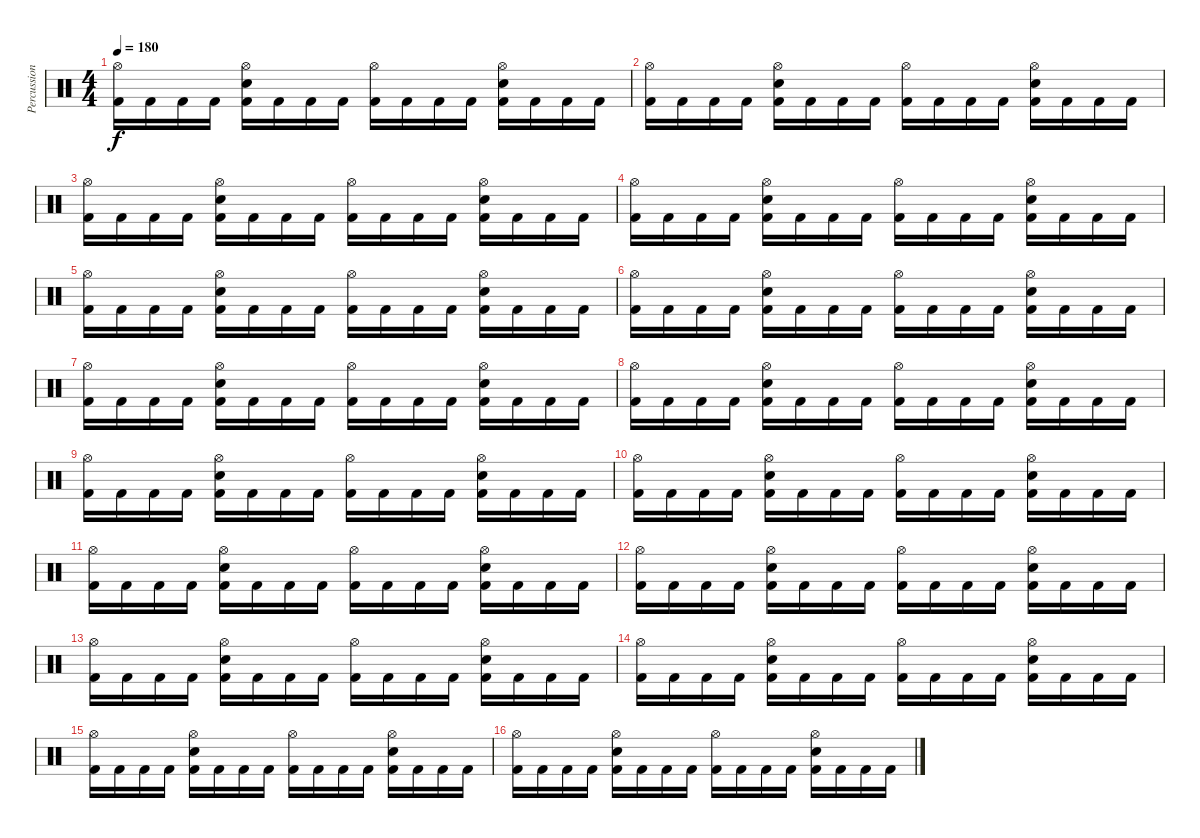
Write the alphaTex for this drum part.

\track ("Percussion" "Percussion") {instrument percussion}
\staff {score}
\articulation defaults
\ts (4 4)
\tempo 180
\clef neutral
\ks c
("Hi-Hat (open)" "Kick (hit) 2").16{dy f} "Kick (hit) 2".16 "Kick (hit) 2".16 "Kick (hit) 2".16 ("Hi-Hat (open)" "Snare (hit) 2" "Kick (hit) 2").16 "Kick (hit) 2".16 "Kick (hit) 2".16 "Kick (hit) 2".16 ("Hi-Hat (open)" "Kick (hit) 2").16 "Kick (hit) 2".16 "Kick (hit) 2".16 "Kick (hit) 2".16 ("Hi-Hat (open)" "Snare (hit) 2" "Kick (hit) 2").16 "Kick (hit) 2".16 "Kick (hit) 2".16 "Kick (hit) 2".16 |
("Hi-Hat (open)" "Kick (hit) 2").16 "Kick (hit) 2".16 "Kick (hit) 2".16 "Kick (hit) 2".16 ("Hi-Hat (open)" "Snare (hit) 2" "Kick (hit) 2").16 "Kick (hit) 2".16 "Kick (hit) 2".16 "Kick (hit) 2".16 ("Hi-Hat (open)" "Kick (hit) 2").16 "Kick (hit) 2".16 "Kick (hit) 2".16 "Kick (hit) 2".16 ("Hi-Hat (open)" "Snare (hit) 2" "Kick (hit) 2").16 "Kick (hit) 2".16 "Kick (hit) 2".16 "Kick (hit) 2".16 |
("Hi-Hat (open)" "Kick (hit) 2").16 "Kick (hit) 2".16 "Kick (hit) 2".16 "Kick (hit) 2".16 ("Hi-Hat (open)" "Snare (hit) 2" "Kick (hit) 2").16 "Kick (hit) 2".16 "Kick (hit) 2".16 "Kick (hit) 2".16 ("Hi-Hat (open)" "Kick (hit) 2").16 "Kick (hit) 2".16 "Kick (hit) 2".16 "Kick (hit) 2".16 ("Hi-Hat (open)" "Snare (hit) 2" "Kick (hit) 2").16 "Kick (hit) 2".16 "Kick (hit) 2".16 "Kick (hit) 2".16 |
("Hi-Hat (open)" "Kick (hit) 2").16 "Kick (hit) 2".16 "Kick (hit) 2".16 "Kick (hit) 2".16 ("Hi-Hat (open)" "Snare (hit) 2" "Kick (hit) 2").16 "Kick (hit) 2".16 "Kick (hit) 2".16 "Kick (hit) 2".16 ("Hi-Hat (open)" "Kick (hit) 2").16 "Kick (hit) 2".16 "Kick (hit) 2".16 "Kick (hit) 2".16 ("Hi-Hat (open)" "Snare (hit) 2" "Kick (hit) 2").16 "Kick (hit) 2".16 "Kick (hit) 2".16 "Kick (hit) 2".16 |
("Hi-Hat (open)" "Kick (hit) 2").16 "Kick (hit) 2".16 "Kick (hit) 2".16 "Kick (hit) 2".16 ("Hi-Hat (open)" "Snare (hit) 2" "Kick (hit) 2").16 "Kick (hit) 2".16 "Kick (hit) 2".16 "Kick (hit) 2".16 ("Hi-Hat (open)" "Kick (hit) 2").16 "Kick (hit) 2".16 "Kick (hit) 2".16 "Kick (hit) 2".16 ("Hi-Hat (open)" "Snare (hit) 2" "Kick (hit) 2").16 "Kick (hit) 2".16 "Kick (hit) 2".16 "Kick (hit) 2".16 |
("Hi-Hat (open)" "Kick (hit) 2").16 "Kick (hit) 2".16 "Kick (hit) 2".16 "Kick (hit) 2".16 ("Hi-Hat (open)" "Snare (hit) 2" "Kick (hit) 2").16 "Kick (hit) 2".16 "Kick (hit) 2".16 "Kick (hit) 2".16 ("Hi-Hat (open)" "Kick (hit) 2").16 "Kick (hit) 2".16 "Kick (hit) 2".16 "Kick (hit) 2".16 ("Hi-Hat (open)" "Snare (hit) 2" "Kick (hit) 2").16 "Kick (hit) 2".16 "Kick (hit) 2".16 "Kick (hit) 2".16 |
("Hi-Hat (open)" "Kick (hit) 2").16 "Kick (hit) 2".16 "Kick (hit) 2".16 "Kick (hit) 2".16 ("Hi-Hat (open)" "Snare (hit) 2" "Kick (hit) 2").16 "Kick (hit) 2".16 "Kick (hit) 2".16 "Kick (hit) 2".16 ("Hi-Hat (open)" "Kick (hit) 2").16 "Kick (hit) 2".16 "Kick (hit) 2".16 "Kick (hit) 2".16 ("Hi-Hat (open)" "Snare (hit) 2" "Kick (hit) 2").16 "Kick (hit) 2".16 "Kick (hit) 2".16 "Kick (hit) 2".16 |
("Hi-Hat (open)" "Kick (hit) 2").16 "Kick (hit) 2".16 "Kick (hit) 2".16 "Kick (hit) 2".16 ("Hi-Hat (open)" "Snare (hit) 2" "Kick (hit) 2").16 "Kick (hit) 2".16 "Kick (hit) 2".16 "Kick (hit) 2".16 ("Hi-Hat (open)" "Kick (hit) 2").16 "Kick (hit) 2".16 "Kick (hit) 2".16 "Kick (hit) 2".16 ("Hi-Hat (open)" "Snare (hit) 2" "Kick (hit) 2").16 "Kick (hit) 2".16 "Kick (hit) 2".16 "Kick (hit) 2".16 |
("Hi-Hat (open)" "Kick (hit) 2").16 "Kick (hit) 2".16 "Kick (hit) 2".16 "Kick (hit) 2".16 ("Hi-Hat (open)" "Snare (hit) 2" "Kick (hit) 2").16 "Kick (hit) 2".16 "Kick (hit) 2".16 "Kick (hit) 2".16 ("Hi-Hat (open)" "Kick (hit) 2").16 "Kick (hit) 2".16 "Kick (hit) 2".16 "Kick (hit) 2".16 ("Hi-Hat (open)" "Snare (hit) 2" "Kick (hit) 2").16 "Kick (hit) 2".16 "Kick (hit) 2".16 "Kick (hit) 2".16 |
("Hi-Hat (open)" "Kick (hit) 2").16 "Kick (hit) 2".16 "Kick (hit) 2".16 "Kick (hit) 2".16 ("Hi-Hat (open)" "Snare (hit) 2" "Kick (hit) 2").16 "Kick (hit) 2".16 "Kick (hit) 2".16 "Kick (hit) 2".16 ("Hi-Hat (open)" "Kick (hit) 2").16 "Kick (hit) 2".16 "Kick (hit) 2".16 "Kick (hit) 2".16 ("Hi-Hat (open)" "Snare (hit) 2" "Kick (hit) 2").16 "Kick (hit) 2".16 "Kick (hit) 2".16 "Kick (hit) 2".16 |
("Hi-Hat (open)" "Kick (hit) 2").16 "Kick (hit) 2".16 "Kick (hit) 2".16 "Kick (hit) 2".16 ("Hi-Hat (open)" "Snare (hit) 2" "Kick (hit) 2").16 "Kick (hit) 2".16 "Kick (hit) 2".16 "Kick (hit) 2".16 ("Hi-Hat (open)" "Kick (hit) 2").16 "Kick (hit) 2".16 "Kick (hit) 2".16 "Kick (hit) 2".16 ("Hi-Hat (open)" "Snare (hit) 2" "Kick (hit) 2").16 "Kick (hit) 2".16 "Kick (hit) 2".16 "Kick (hit) 2".16 |
("Hi-Hat (open)" "Kick (hit) 2").16 "Kick (hit) 2".16 "Kick (hit) 2".16 "Kick (hit) 2".16 ("Hi-Hat (open)" "Snare (hit) 2" "Kick (hit) 2").16 "Kick (hit) 2".16 "Kick (hit) 2".16 "Kick (hit) 2".16 ("Hi-Hat (open)" "Kick (hit) 2").16 "Kick (hit) 2".16 "Kick (hit) 2".16 "Kick (hit) 2".16 ("Hi-Hat (open)" "Snare (hit) 2" "Kick (hit) 2").16 "Kick (hit) 2".16 "Kick (hit) 2".16 "Kick (hit) 2".16 |
("Hi-Hat (open)" "Kick (hit) 2").16 "Kick (hit) 2".16 "Kick (hit) 2".16 "Kick (hit) 2".16 ("Hi-Hat (open)" "Snare (hit) 2" "Kick (hit) 2").16 "Kick (hit) 2".16 "Kick (hit) 2".16 "Kick (hit) 2".16 ("Hi-Hat (open)" "Kick (hit) 2").16 "Kick (hit) 2".16 "Kick (hit) 2".16 "Kick (hit) 2".16 ("Hi-Hat (open)" "Snare (hit) 2" "Kick (hit) 2").16 "Kick (hit) 2".16 "Kick (hit) 2".16 "Kick (hit) 2".16 |
("Hi-Hat (open)" "Kick (hit) 2").16 "Kick (hit) 2".16 "Kick (hit) 2".16 "Kick (hit) 2".16 ("Hi-Hat (open)" "Snare (hit) 2" "Kick (hit) 2").16 "Kick (hit) 2".16 "Kick (hit) 2".16 "Kick (hit) 2".16 ("Hi-Hat (open)" "Kick (hit) 2").16 "Kick (hit) 2".16 "Kick (hit) 2".16 "Kick (hit) 2".16 ("Hi-Hat (open)" "Snare (hit) 2" "Kick (hit) 2").16 "Kick (hit) 2".16 "Kick (hit) 2".16 "Kick (hit) 2".16 |
("Hi-Hat (open)" "Kick (hit) 2").16 "Kick (hit) 2".16 "Kick (hit) 2".16 "Kick (hit) 2".16 ("Hi-Hat (open)" "Snare (hit) 2" "Kick (hit) 2").16 "Kick (hit) 2".16 "Kick (hit) 2".16 "Kick (hit) 2".16 ("Hi-Hat (open)" "Kick (hit) 2").16 "Kick (hit) 2".16 "Kick (hit) 2".16 "Kick (hit) 2".16 ("Hi-Hat (open)" "Snare (hit) 2" "Kick (hit) 2").16 "Kick (hit) 2".16 "Kick (hit) 2".16 "Kick (hit) 2".16 |
("Hi-Hat (open)" "Kick (hit) 2").16 "Kick (hit) 2".16 "Kick (hit) 2".16 "Kick (hit) 2".16 ("Hi-Hat (open)" "Snare (hit) 2" "Kick (hit) 2").16 "Kick (hit) 2".16 "Kick (hit) 2".16 "Kick (hit) 2".16 ("Hi-Hat (open)" "Kick (hit) 2").16 "Kick (hit) 2".16 "Kick (hit) 2".16 "Kick (hit) 2".16 ("Hi-Hat (open)" "Snare (hit) 2" "Kick (hit) 2").16 "Kick (hit) 2".16 "Kick (hit) 2".16 "Kick (hit) 2".16
